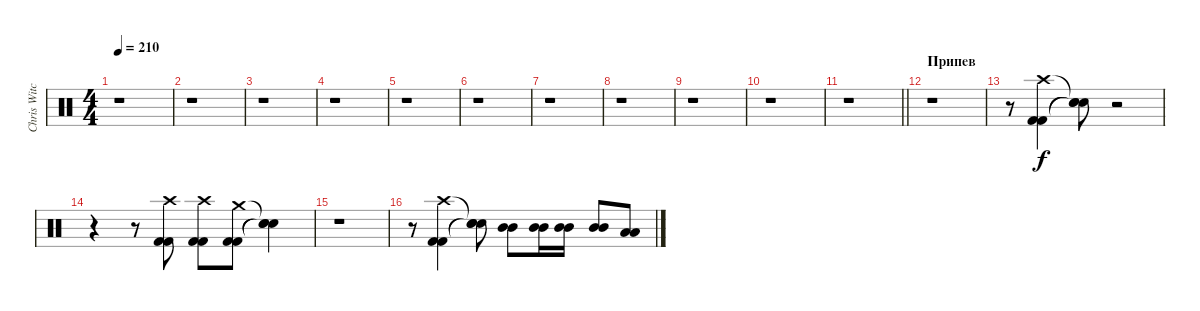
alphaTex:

\track ("Chris Witchhunter" "Chris Witc") {instrument percussion}
\staff {score}
\articulation defaults
\ts (4 4)
\tempo 210
\clef neutral
\ks c
r.1{dy f} |
r.1 |
r.1 |
r.1 |
r.1 |
r.1 |
r.1 |
r.1 |
r.1 |
r.1 |
\barLineRight lightlight
r.1 |
\section ("" "Припев")
r.1 |
r.8 ("Crash high (hit)" "Kick (hit) 2" "Kick (hit) 2").4 ("Snare (hit)"{t} "Snare (hit)"{t} "Snare (hit)"{t}).8 r.2 |
r.4 r.8 ("Crash high (hit)" "Kick (hit) 2" "Kick (hit) 2").8 ("Crash high (hit)" "Kick (hit) 2" "Kick (hit) 2").8 ("Crash medium (hit)" "Kick (hit) 2" "Kick (hit) 2").8 ("Snare (hit)"{t} "Snare (hit)"{t} "Snare (hit)"{t}).4 |
r.1 |
r.8 ("Crash high (hit)" "Kick (hit) 2" "Kick (hit) 2").4 ("Snare (hit)"{t} "Snare (hit)"{t} "Snare (hit)"{t}).8 ("Mid Tom (hit)" "Mid Tom (hit)").8 ("Mid Tom (hit)" "Mid Tom (hit)").16 ("Mid Tom (hit)" "Mid Tom (hit)").16 ("Mid Tom (hit)" "Mid Tom (hit)").8 ("Low Tom (hit)" "Low Tom (hit)").8
